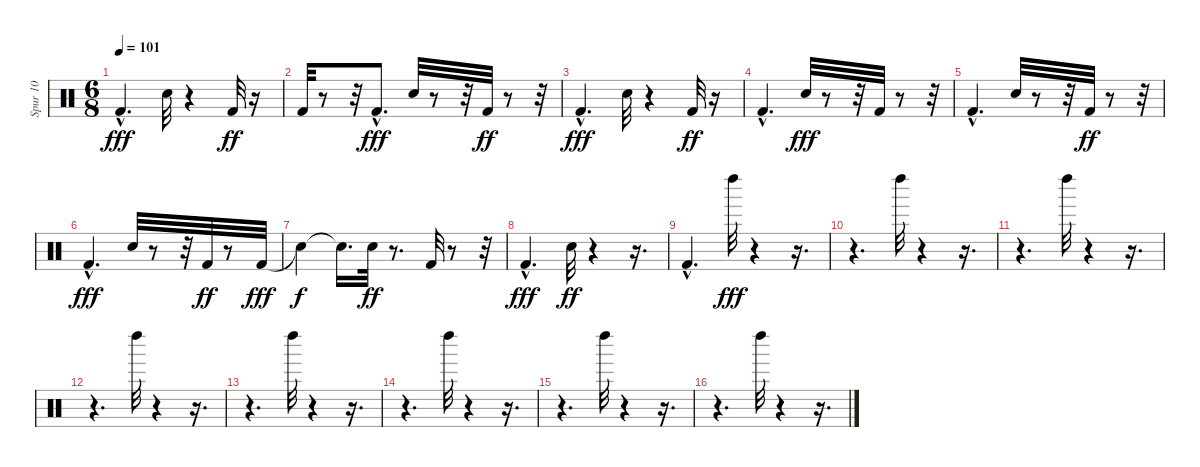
\track ("Spur 10" "Spur 10") {instrument percussion}
\staff {score}
\articulation defaults
\ts (6 8)
\tempo 101
\clef neutral
\ks c "Kick (hit) 2"{hac}.4{d dy fff} "Electric Snare (hit)".32
r.4 "Kick (hit) 2".32{dy ff} r.16 |
"Kick (hit) 2".32 r.8 r.32 "Kick (hit) 2"{hac}.8{d dy fff} "Electric Snare (hit)".32 r.8 r.32 "Kick (hit) 2".32{dy ff} r.8 r.32 |
"Kick (hit) 2"{hac}.4{d dy fff} "Electric Snare (hit)".32 r.4 "Kick (hit) 2".32{dy ff} r.16 |
"Kick (hit) 2"{hac}.4{d} "Electric Snare (hit)".32{dy fff} r.8 r.32 "Kick (hit) 2".32 r.8 r.32 |
"Kick (hit) 2"{hac}.4{d} "Electric Snare (hit)".32 r.8 r.32 "Kick (hit) 2".32{dy ff} r.8 r.32 |
"Kick (hit) 2"{hac}.4{d dy fff} "Electric Snare (hit)".32 r.8 r.32 "Kick (hit) 2".32{dy ff} r.8 "Kick (hit) 2".32{dy fff} |
"Snare (hit)"{t}.4{dy f} "Snare (hit)"{t}.16{d} "Electric Snare (hit)".32{dy ff} r.8{d} "Kick (hit) 2".32 r.8 r.32 |
"Kick (hit) 2"{hac}.4{d dy fff} "Electric Snare (hit)".32{dy ff} r.4 r.16{d} |
"Kick (hit) 2"{hac}.4{d} "Left Maraca (hit)".32{dy fff} r.4 r.16{d} |
r.4{d} "Left Maraca (hit)".32 r.4 r.16{d} |
r.4{d} "Left Maraca (hit)".32 r.4 r.16{d} |
r.4{d} "Left Maraca (hit)".32 r.4 r.16{d} |
r.4{d} "Left Maraca (hit)".32 r.4 r.16{d} |
r.4{d} "Left Maraca (hit)".32 r.4 r.16{d} |
r.4{d} "Left Maraca (hit)".32 r.4 r.16{d} |
r.4{d} "Left Maraca (hit)".32 r.4 r.16{d}
